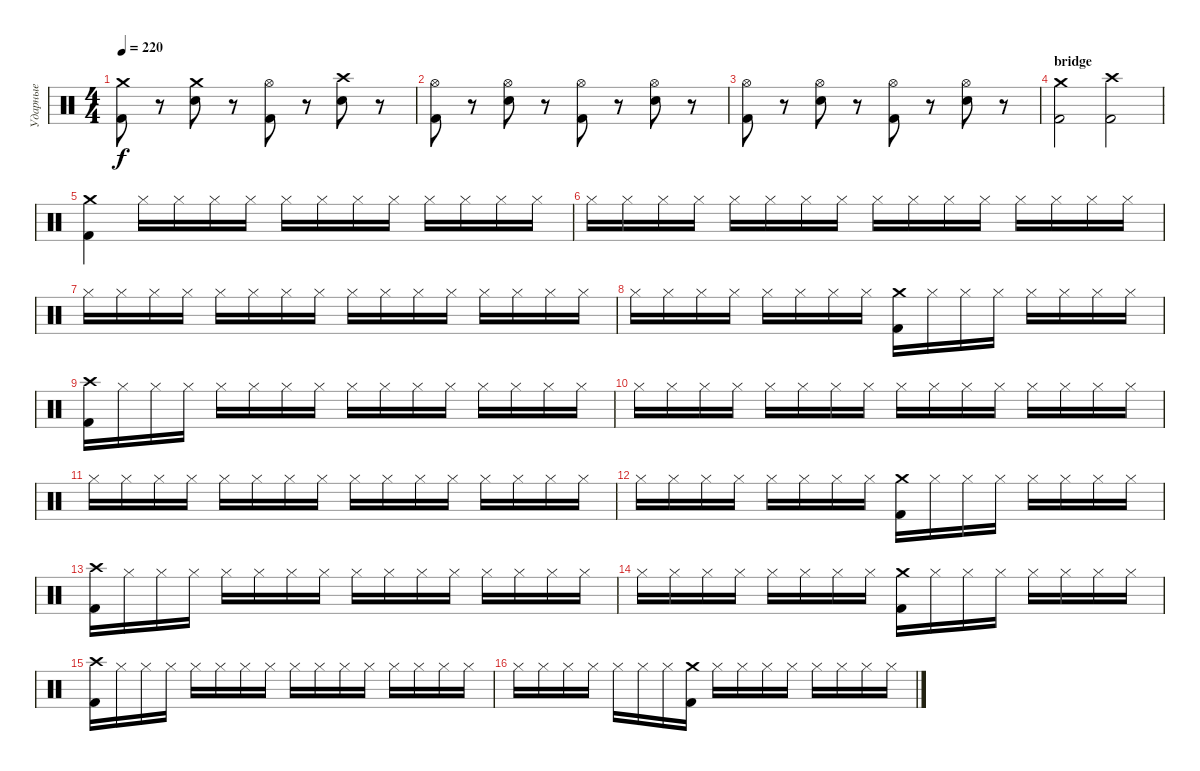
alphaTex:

\track ("Ударные" "Ударные") {instrument percussion}
\staff {score}
\articulation defaults
\ts (4 4)
\tempo 220
\clef neutral
\ks c
("Crash medium (hit)" "Kick (hit) 2").8{dy f} r.8 ("Crash medium (hit)" "Electric Snare (hit)").8 r.8 ("Hi-Hat (open)" "Kick (hit) 2").8 r.8 ("Crash high (hit)" "Electric Snare (hit)").8 r.8 |
("Hi-Hat (open)" "Kick (hit) 2").8 r.8 ("Hi-Hat (open)" "Electric Snare (hit)").8 r.8 ("Hi-Hat (open)" "Kick (hit) 2").8 r.8 ("Hi-Hat (open)" "Electric Snare (hit)").8 r.8 |
("Hi-Hat (open)" "Kick (hit) 2").8 r.8 ("Hi-Hat (open)" "Electric Snare (hit)").8 r.8 ("Hi-Hat (open)" "Kick (hit) 2").8 r.8 ("Hi-Hat (open)" "Electric Snare (hit)").8 r.8 |
\section ("" "bridge")
("Crash medium (hit)" "Kick (hit) 2").2 ("Crash high (hit)" "Kick (hit) 2").2 |
("Crash medium (hit)" "Kick (hit) 2").4 "Hi-Hat (closed)".16 "Hi-Hat (closed)".16 "Hi-Hat (closed)".16 "Hi-Hat (closed)".16 "Hi-Hat (closed)".16 "Hi-Hat (closed)".16 "Hi-Hat (closed)".16 "Hi-Hat (closed)".16 "Hi-Hat (closed)".16 "Hi-Hat (closed)".16 "Hi-Hat (closed)".16 "Hi-Hat (closed)".16 |
"Hi-Hat (closed)".16 "Hi-Hat (closed)".16 "Hi-Hat (closed)".16 "Hi-Hat (closed)".16 "Hi-Hat (closed)".16 "Hi-Hat (closed)".16 "Hi-Hat (closed)".16 "Hi-Hat (closed)".16 "Hi-Hat (closed)".16 "Hi-Hat (closed)".16 "Hi-Hat (closed)".16 "Hi-Hat (closed)".16 "Hi-Hat (closed)".16 "Hi-Hat (closed)".16 "Hi-Hat (closed)".16 "Hi-Hat (closed)".16 |
"Hi-Hat (closed)".16 "Hi-Hat (closed)".16 "Hi-Hat (closed)".16 "Hi-Hat (closed)".16 "Hi-Hat (closed)".16 "Hi-Hat (closed)".16 "Hi-Hat (closed)".16 "Hi-Hat (closed)".16 "Hi-Hat (closed)".16 "Hi-Hat (closed)".16 "Hi-Hat (closed)".16 "Hi-Hat (closed)".16 "Hi-Hat (closed)".16 "Hi-Hat (closed)".16 "Hi-Hat (closed)".16 "Hi-Hat (closed)".16 |
"Hi-Hat (closed)".16 "Hi-Hat (closed)".16 "Hi-Hat (closed)".16 "Hi-Hat (closed)".16 "Hi-Hat (closed)".16 "Hi-Hat (closed)".16 "Hi-Hat (closed)".16 "Hi-Hat (closed)".16 ("Crash medium (hit)" "Kick (hit) 2").16 "Hi-Hat (closed)".16 "Hi-Hat (closed)".16 "Hi-Hat (closed)".16 "Hi-Hat (closed)".16 "Hi-Hat (closed)".16 "Hi-Hat (closed)".16 "Hi-Hat (closed)".16 |
("Crash high (hit)" "Kick (hit) 2").16 "Hi-Hat (closed)".16 "Hi-Hat (closed)".16 "Hi-Hat (closed)".16 "Hi-Hat (closed)".16 "Hi-Hat (closed)".16 "Hi-Hat (closed)".16 "Hi-Hat (closed)".16 "Hi-Hat (closed)".16 "Hi-Hat (closed)".16 "Hi-Hat (closed)".16 "Hi-Hat (closed)".16 "Hi-Hat (closed)".16 "Hi-Hat (closed)".16 "Hi-Hat (closed)".16 "Hi-Hat (closed)".16 |
"Hi-Hat (closed)".16 "Hi-Hat (closed)".16 "Hi-Hat (closed)".16 "Hi-Hat (closed)".16 "Hi-Hat (closed)".16 "Hi-Hat (closed)".16 "Hi-Hat (closed)".16 "Hi-Hat (closed)".16 "Hi-Hat (closed)".16 "Hi-Hat (closed)".16 "Hi-Hat (closed)".16 "Hi-Hat (closed)".16 "Hi-Hat (closed)".16 "Hi-Hat (closed)".16 "Hi-Hat (closed)".16 "Hi-Hat (closed)".16 |
"Hi-Hat (closed)".16 "Hi-Hat (closed)".16 "Hi-Hat (closed)".16 "Hi-Hat (closed)".16 "Hi-Hat (closed)".16 "Hi-Hat (closed)".16 "Hi-Hat (closed)".16 "Hi-Hat (closed)".16 "Hi-Hat (closed)".16 "Hi-Hat (closed)".16 "Hi-Hat (closed)".16 "Hi-Hat (closed)".16 "Hi-Hat (closed)".16 "Hi-Hat (closed)".16 "Hi-Hat (closed)".16 "Hi-Hat (closed)".16 |
"Hi-Hat (closed)".16 "Hi-Hat (closed)".16 "Hi-Hat (closed)".16 "Hi-Hat (closed)".16 "Hi-Hat (closed)".16 "Hi-Hat (closed)".16 "Hi-Hat (closed)".16 "Hi-Hat (closed)".16 ("Crash medium (hit)" "Kick (hit) 2").16 "Hi-Hat (closed)".16 "Hi-Hat (closed)".16 "Hi-Hat (closed)".16 "Hi-Hat (closed)".16 "Hi-Hat (closed)".16 "Hi-Hat (closed)".16 "Hi-Hat (closed)".16 |
("Crash high (hit)" "Kick (hit) 2").16 "Hi-Hat (closed)".16 "Hi-Hat (closed)".16 "Hi-Hat (closed)".16 "Hi-Hat (closed)".16 "Hi-Hat (closed)".16 "Hi-Hat (closed)".16 "Hi-Hat (closed)".16 "Hi-Hat (closed)".16 "Hi-Hat (closed)".16 "Hi-Hat (closed)".16 "Hi-Hat (closed)".16 "Hi-Hat (closed)".16 "Hi-Hat (closed)".16 "Hi-Hat (closed)".16 "Hi-Hat (closed)".16 |
"Hi-Hat (closed)".16 "Hi-Hat (closed)".16 "Hi-Hat (closed)".16 "Hi-Hat (closed)".16 "Hi-Hat (closed)".16 "Hi-Hat (closed)".16 "Hi-Hat (closed)".16 "Hi-Hat (closed)".16 ("Crash medium (hit)" "Kick (hit) 2").16 "Hi-Hat (closed)".16 "Hi-Hat (closed)".16 "Hi-Hat (closed)".16 "Hi-Hat (closed)".16 "Hi-Hat (closed)".16 "Hi-Hat (closed)".16 "Hi-Hat (closed)".16 |
("Crash high (hit)" "Kick (hit) 2").16 "Hi-Hat (closed)".16 "Hi-Hat (closed)".16 "Hi-Hat (closed)".16 "Hi-Hat (closed)".16 "Hi-Hat (closed)".16 "Hi-Hat (closed)".16 "Hi-Hat (closed)".16 "Hi-Hat (closed)".16 "Hi-Hat (closed)".16 "Hi-Hat (closed)".16 "Hi-Hat (closed)".16 "Hi-Hat (closed)".16 "Hi-Hat (closed)".16 "Hi-Hat (closed)".16 "Hi-Hat (closed)".16 |
"Hi-Hat (closed)".16 "Hi-Hat (closed)".16 "Hi-Hat (closed)".16 "Hi-Hat (closed)".16 "Hi-Hat (closed)".16 "Hi-Hat (closed)".16 "Hi-Hat (closed)".16 ("Crash medium (hit)" "Kick (hit) 2").16 "Hi-Hat (closed)".16 "Hi-Hat (closed)".16 "Hi-Hat (closed)".16 "Hi-Hat (closed)".16 "Hi-Hat (closed)".16 "Hi-Hat (closed)".16 "Hi-Hat (closed)".16 "Hi-Hat (closed)".16
